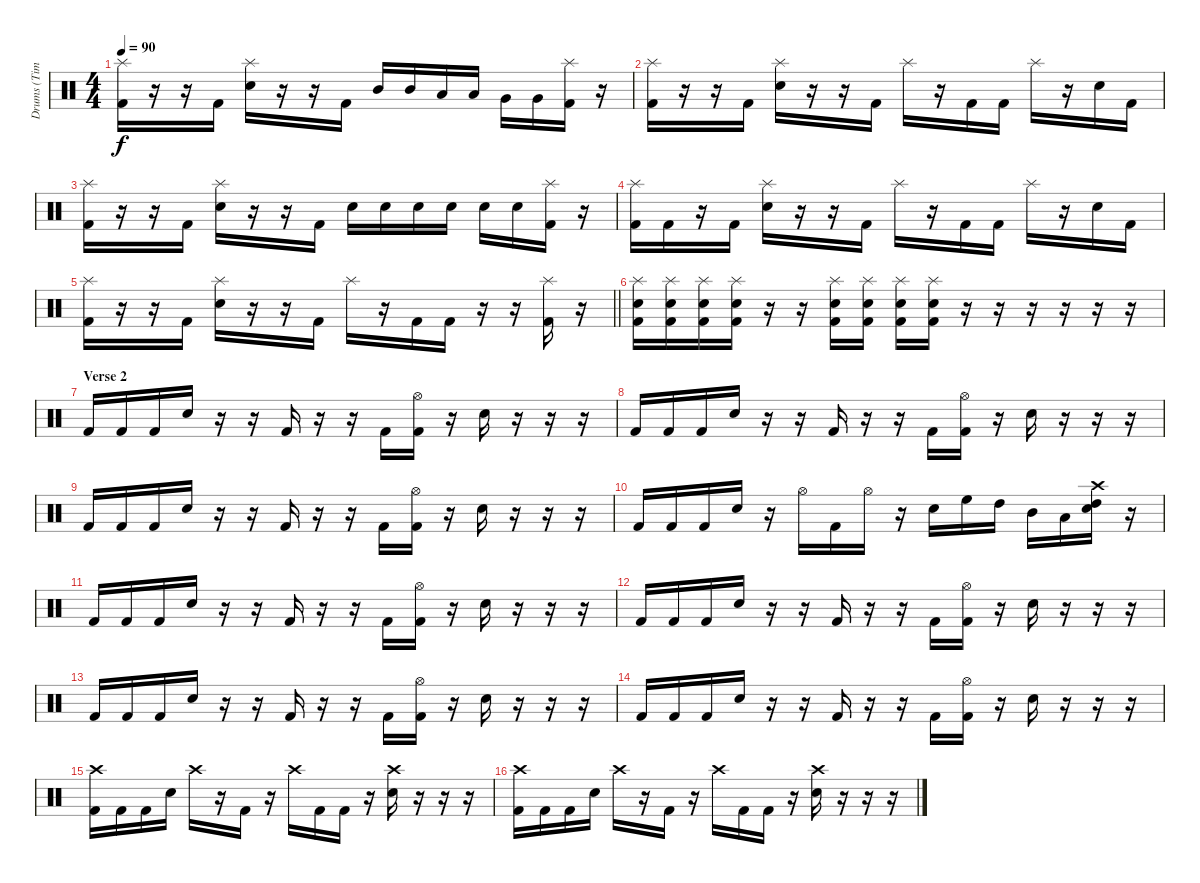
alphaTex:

\track ("Drums (Tim Watts)" "Drums (Tim") {instrument percussion}
\staff {score}
\articulation defaults
\ts (4 4)
\tempo 90
\clef neutral
\ks c
("Splash (hit)" "Kick (hit) 2").16{dy f} r.16 r.16 "Kick (hit) 2".16 ("Splash (hit)" "Snare (hit) 2").16 r.16 r.16 "Kick (hit) 2".16 "Mid Tom (hit)".16 "Mid Tom (hit)".16 "Low Tom (hit)".16 "Low Tom (hit)".16 "Very Low Tom (hit)".16 "Very Low Tom (hit)".16 ("Splash (hit)" "Kick (hit) 2").16 r.16 |
("Splash (hit)" "Kick (hit) 2").16 r.16 r.16 "Kick (hit) 2".16 ("Splash (hit)" "Snare (hit) 2").16 r.16 r.16 "Kick (hit) 2".16 "Splash (hit)".16 r.16 "Kick (hit) 2".16 "Kick (hit) 2".16 "Splash (hit)".16 r.16 "Snare (hit) 2".16 "Kick (hit) 2".16 |
("Splash (hit)" "Kick (hit) 2").16 r.16 r.16 "Kick (hit) 2".16 ("Splash (hit)" "Snare (hit) 2").16 r.16 r.16 "Kick (hit) 2".16 "Snare (hit) 2".16 "Snare (hit) 2".16 "Snare (hit) 2".16 "Snare (hit) 2".16 "Snare (hit) 2".16 "Snare (hit) 2".16 ("Splash (hit)" "Kick (hit) 2").16 r.16 |
("Splash (hit)" "Kick (hit) 2").16 "Kick (hit) 2".16 r.16 "Kick (hit) 2".16 ("Splash (hit)" "Snare (hit) 2").16 r.16 r.16 "Kick (hit) 2".16 "Splash (hit)".16 r.16 "Kick (hit) 2".16 "Kick (hit) 2".16 "Splash (hit)".16 r.16 "Snare (hit) 2".16 "Kick (hit) 2".16 |
\barLineRight lightlight
("Splash (hit)" "Kick (hit) 2").16 r.16 r.16 "Kick (hit) 2".16 ("Splash (hit)" "Snare (hit) 2").16 r.16 r.16 "Kick (hit) 2".16 "Splash (hit)".16 r.16 "Kick (hit) 2".16 "Kick (hit) 2".16 r.16 r.16 ("Splash (hit)" "Kick (hit) 2").16 r.16 |
("Splash (hit)" "Snare (hit) 2" "Kick (hit) 2").16 ("Splash (hit)" "Snare (hit) 2" "Kick (hit) 2").16 ("Splash (hit)" "Snare (hit) 2" "Kick (hit) 2").16 ("Splash (hit)" "Snare (hit) 2" "Kick (hit) 2").16 r.16 r.16 ("Splash (hit)" "Snare (hit) 2" "Kick (hit) 2").16 ("Splash (hit)" "Snare (hit) 2" "Kick (hit) 2").16 ("Splash (hit)" "Snare (hit) 2" "Kick (hit) 2").16 ("Splash (hit)" "Snare (hit) 2" "Kick (hit) 2").16 r.16 r.16 r.16 r.16 r.16 r.16 |
\section ("" "Verse 2")
"Kick (hit) 2".16 "Kick (hit) 2".16 "Kick (hit) 2".16 "Snare (hit) 2".16 r.16 r.16 "Kick (hit) 2".16 r.16 r.16 "Kick (hit) 2".16 ("Hi-Hat (open)" "Kick (hit) 2").16 r.16 "Snare (hit) 2".16 r.16 r.16 r.16 |
"Kick (hit) 2".16 "Kick (hit) 2".16 "Kick (hit) 2".16 "Snare (hit) 2".16 r.16 r.16 "Kick (hit) 2".16 r.16 r.16 "Kick (hit) 2".16 ("Hi-Hat (open)" "Kick (hit) 2").16 r.16 "Snare (hit) 2".16 r.16 r.16 r.16 |
"Kick (hit) 2".16 "Kick (hit) 2".16 "Kick (hit) 2".16 "Snare (hit) 2".16 r.16 r.16 "Kick (hit) 2".16 r.16 r.16 "Kick (hit) 2".16 ("Hi-Hat (open)" "Kick (hit) 2").16 r.16 "Snare (hit) 2".16 r.16 r.16 r.16 |
"Kick (hit) 2".16 "Kick (hit) 2".16 "Kick (hit) 2".16 "Snare (hit) 2".16 r.16 "Hi-Hat (open)".16 "Kick (hit) 2".16 "Hi-Hat (open)".16 r.16 "Snare (hit) 2".16 "High Floor Tom (hit)".16 "High Tom (hit)".16 "Mid Tom (hit)".16 "Low Tom (hit)".16 ("Snare (hit) 2" "Crash high (hit)" "High Tom (hit)").16 r.16 |
"Kick (hit) 2".16 "Kick (hit) 2".16 "Kick (hit) 2".16 "Snare (hit) 2".16 r.16 r.16 "Kick (hit) 2".16 r.16 r.16 "Kick (hit) 2".16 ("Hi-Hat (open)" "Kick (hit) 2").16 r.16 "Snare (hit) 2".16 r.16 r.16 r.16 |
"Kick (hit) 2".16 "Kick (hit) 2".16 "Kick (hit) 2".16 "Snare (hit) 2".16 r.16 r.16 "Kick (hit) 2".16 r.16 r.16 "Kick (hit) 2".16 ("Hi-Hat (open)" "Kick (hit) 2").16 r.16 "Snare (hit) 2".16 r.16 r.16 r.16 |
"Kick (hit) 2".16 "Kick (hit) 2".16 "Kick (hit) 2".16 "Snare (hit) 2".16 r.16 r.16 "Kick (hit) 2".16 r.16 r.16 "Kick (hit) 2".16 ("Hi-Hat (open)" "Kick (hit) 2").16 r.16 "Snare (hit) 2".16 r.16 r.16 r.16 |
"Kick (hit) 2".16 "Kick (hit) 2".16 "Kick (hit) 2".16 "Snare (hit) 2".16 r.16 r.16 "Kick (hit) 2".16 r.16 r.16 "Kick (hit) 2".16 ("Hi-Hat (open)" "Kick (hit) 2").16 r.16 "Snare (hit) 2".16 r.16 r.16 r.16 |
("Crash high (hit)" "Kick (hit) 2").16 "Kick (hit) 2".16 "Kick (hit) 2".16 "Snare (hit) 2".16 "Crash high (hit)".16 r.16 "Kick (hit) 2".16 r.16 "Crash high (hit)".16 "Kick (hit) 2".16 "Kick (hit) 2".16 r.16 ("Crash high (hit)" "Snare (hit) 2").16 r.16 r.16 r.16 |
("Crash high (hit)" "Kick (hit) 2").16 "Kick (hit) 2".16 "Kick (hit) 2".16 "Snare (hit) 2".16 "Crash high (hit)".16 r.16 "Kick (hit) 2".16 r.16 "Crash high (hit)".16 "Kick (hit) 2".16 "Kick (hit) 2".16 r.16 ("Crash high (hit)" "Snare (hit) 2").16 r.16 r.16 r.16
